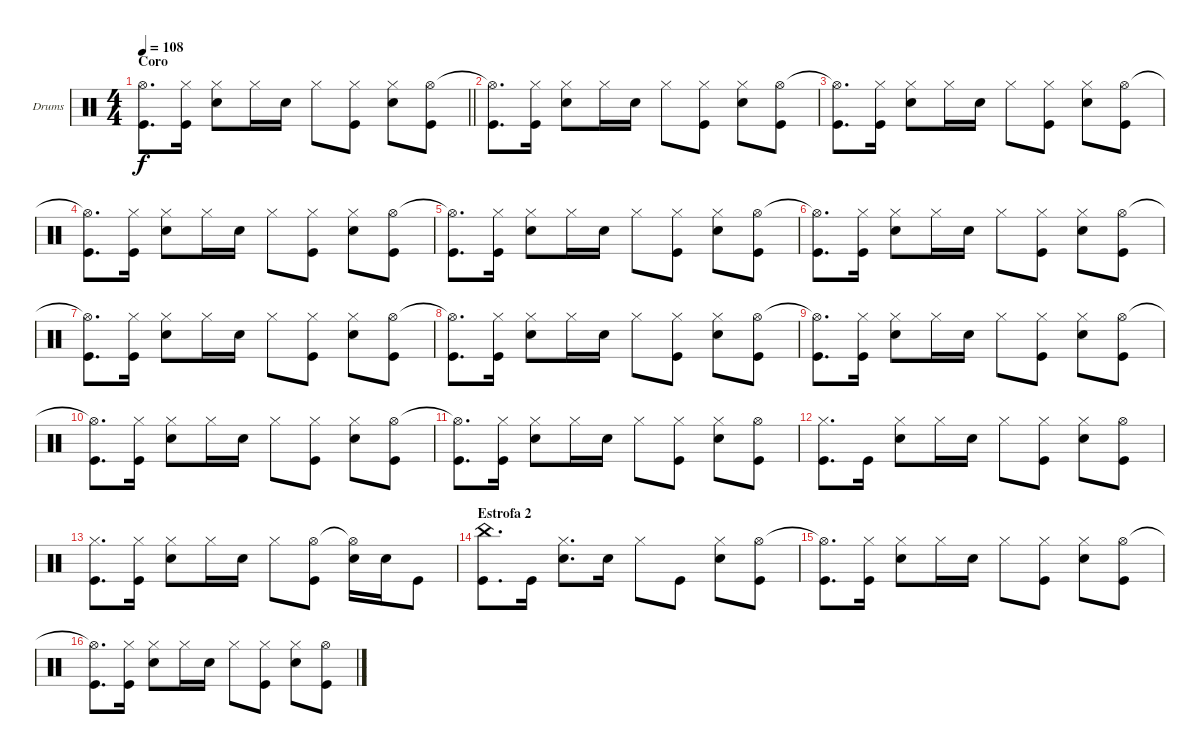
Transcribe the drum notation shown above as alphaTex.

\bracketExtendMode groupsimilarinstruments
\firstSystemTrackNameOrientation horizontal
\otherSystemsTrackNameOrientation horizontal
\track ("Drumkit" "Drums") {instrument percussion}
\staff {score}
\articulation defaults
\ts (4 4)
\section ("" "Coro")
\tempo 108
\clef neutral
\barLineRight lightlight
\ks c
("Hi-Hat (open)"{t} "Kick (hit)").8{d dy f} ("Hi-Hat (closed)" "Kick (hit)").16 ("Hi-Hat (closed)" "Snare (hit) 2").8 "Hi-Hat (closed)".16 "Snare (hit) 2".16 "Hi-Hat (closed)".8 ("Hi-Hat (closed)" "Kick (hit)").8 ("Hi-Hat (closed)" "Snare (hit) 2").8 ("Hi-Hat (open)" "Kick (hit)").8 |
("Hi-Hat (open)"{t} "Kick (hit)").8{d} ("Hi-Hat (closed)" "Kick (hit)").16 ("Hi-Hat (closed)" "Snare (hit) 2").8 "Hi-Hat (closed)".16 "Snare (hit) 2".16 "Hi-Hat (closed)".8 ("Hi-Hat (closed)" "Kick (hit)").8 ("Hi-Hat (closed)" "Snare (hit) 2").8 ("Hi-Hat (open)" "Kick (hit)").8 |
("Hi-Hat (open)"{t} "Kick (hit)").8{d} ("Hi-Hat (closed)" "Kick (hit)").16 ("Hi-Hat (closed)" "Snare (hit) 2").8 "Hi-Hat (closed)".16 "Snare (hit) 2".16 "Hi-Hat (closed)".8 ("Hi-Hat (closed)" "Kick (hit)").8 ("Hi-Hat (closed)" "Snare (hit) 2").8 ("Hi-Hat (open)" "Kick (hit)").8 |
("Hi-Hat (open)"{t} "Kick (hit)").8{d} ("Hi-Hat (closed)" "Kick (hit)").16 ("Hi-Hat (closed)" "Snare (hit) 2").8 "Hi-Hat (closed)".16 "Snare (hit) 2".16 "Hi-Hat (closed)".8 ("Hi-Hat (closed)" "Kick (hit)").8 ("Hi-Hat (closed)" "Snare (hit) 2").8 ("Hi-Hat (open)" "Kick (hit)").8 |
("Hi-Hat (open)"{t} "Kick (hit)").8{d} ("Hi-Hat (closed)" "Kick (hit)").16 ("Hi-Hat (closed)" "Snare (hit) 2").8 "Hi-Hat (closed)".16 "Snare (hit) 2".16 "Hi-Hat (closed)".8 ("Hi-Hat (closed)" "Kick (hit)").8 ("Hi-Hat (closed)" "Snare (hit) 2").8 ("Hi-Hat (open)" "Kick (hit)").8 |
("Hi-Hat (open)"{t} "Kick (hit)").8{d} ("Hi-Hat (closed)" "Kick (hit)").16 ("Hi-Hat (closed)" "Snare (hit) 2").8 "Hi-Hat (closed)".16 "Snare (hit) 2".16 "Hi-Hat (closed)".8 ("Hi-Hat (closed)" "Kick (hit)").8 ("Hi-Hat (closed)" "Snare (hit) 2").8 ("Hi-Hat (open)" "Kick (hit)").8 |
("Hi-Hat (open)"{t} "Kick (hit)").8{d} ("Hi-Hat (closed)" "Kick (hit)").16 ("Hi-Hat (closed)" "Snare (hit) 2").8 "Hi-Hat (closed)".16 "Snare (hit) 2".16 "Hi-Hat (closed)".8 ("Hi-Hat (closed)" "Kick (hit)").8 ("Hi-Hat (closed)" "Snare (hit) 2").8 ("Hi-Hat (open)" "Kick (hit)").8 |
("Hi-Hat (open)"{t} "Kick (hit)").8{d} ("Hi-Hat (closed)" "Kick (hit)").16 ("Hi-Hat (closed)" "Snare (hit) 2").8 "Hi-Hat (closed)".16 "Snare (hit) 2".16 "Hi-Hat (closed)".8 ("Hi-Hat (closed)" "Kick (hit)").8 ("Hi-Hat (closed)" "Snare (hit) 2").8 ("Hi-Hat (open)" "Kick (hit)").8 |
("Hi-Hat (open)"{t} "Kick (hit)").8{d} ("Hi-Hat (closed)" "Kick (hit)").16 ("Hi-Hat (closed)" "Snare (hit) 2").8 "Hi-Hat (closed)".16 "Snare (hit) 2".16 "Hi-Hat (closed)".8 ("Hi-Hat (closed)" "Kick (hit)").8 ("Hi-Hat (closed)" "Snare (hit) 2").8 ("Hi-Hat (open)" "Kick (hit)").8 |
("Hi-Hat (open)"{t} "Kick (hit)").8{d} ("Hi-Hat (closed)" "Kick (hit)").16 ("Hi-Hat (closed)" "Snare (hit) 2").8 "Hi-Hat (closed)".16 "Snare (hit) 2".16 "Hi-Hat (closed)".8 ("Hi-Hat (closed)" "Kick (hit)").8 ("Hi-Hat (closed)" "Snare (hit) 2").8 ("Hi-Hat (open)" "Kick (hit)").8 |
("Hi-Hat (open)"{t} "Kick (hit)").8{d} ("Hi-Hat (closed)" "Kick (hit)").16 ("Hi-Hat (closed)" "Snare (hit) 2").8 "Hi-Hat (closed)".16 "Snare (hit) 2".16 "Hi-Hat (closed)".8 ("Hi-Hat (closed)" "Kick (hit)").8 ("Hi-Hat (closed)" "Snare (hit) 2").8 ("Hi-Hat (open)" "Kick (hit)").8 |
("Hi-Hat (closed)" "Kick (hit)").8{d} "Kick (hit)".16 ("Hi-Hat (closed)" "Snare (hit) 2").8 "Hi-Hat (closed)".16 "Snare (hit) 2".16 "Hi-Hat (closed)".8 ("Hi-Hat (closed)" "Kick (hit)").8 ("Hi-Hat (closed)" "Snare (hit) 2").8 ("Hi-Hat (open)" "Kick (hit)").8 |
("Hi-Hat (closed)" "Kick (hit)").8{d} ("Hi-Hat (closed)" "Kick (hit)").16 ("Hi-Hat (closed)" "Snare (hit) 2").8 "Hi-Hat (closed)".16 "Snare (hit) 2".16 "Hi-Hat (closed)".8 ("Hi-Hat (open)" "Kick (hit)").8 ("Hi-Hat (open)"{t} "Snare (hit) 2").16 "Snare (hit) 2".16 "Kick (hit)".8 |
\section ("" "Estrofa 2")
("China (hit)" "Kick (hit)").8{d} "Kick (hit)".16 ("Hi-Hat (closed)" "Snare (hit) 2").8{d} "Snare (hit) 2".16 "Hi-Hat (closed)".8 "Kick (hit)".8 ("Hi-Hat (closed)" "Snare (hit) 2").8 ("Hi-Hat (open)" "Kick (hit)").8 |
("Hi-Hat (open)"{t} "Kick (hit)").8{d} ("Hi-Hat (closed)" "Kick (hit)").16 ("Hi-Hat (closed)" "Snare (hit) 2").8 "Hi-Hat (closed)".16 "Snare (hit) 2".16 "Hi-Hat (closed)".8 ("Hi-Hat (closed)" "Kick (hit)").8 ("Hi-Hat (closed)" "Snare (hit) 2").8 ("Hi-Hat (open)" "Kick (hit)").8 |
("Hi-Hat (open)"{t} "Kick (hit)").8{d} ("Hi-Hat (closed)" "Kick (hit)").16 ("Hi-Hat (closed)" "Snare (hit) 2").8 "Hi-Hat (closed)".16 "Snare (hit) 2".16 "Hi-Hat (closed)".8 ("Hi-Hat (closed)" "Kick (hit)").8 ("Hi-Hat (closed)" "Snare (hit) 2").8 ("Hi-Hat (open)" "Kick (hit)").8
